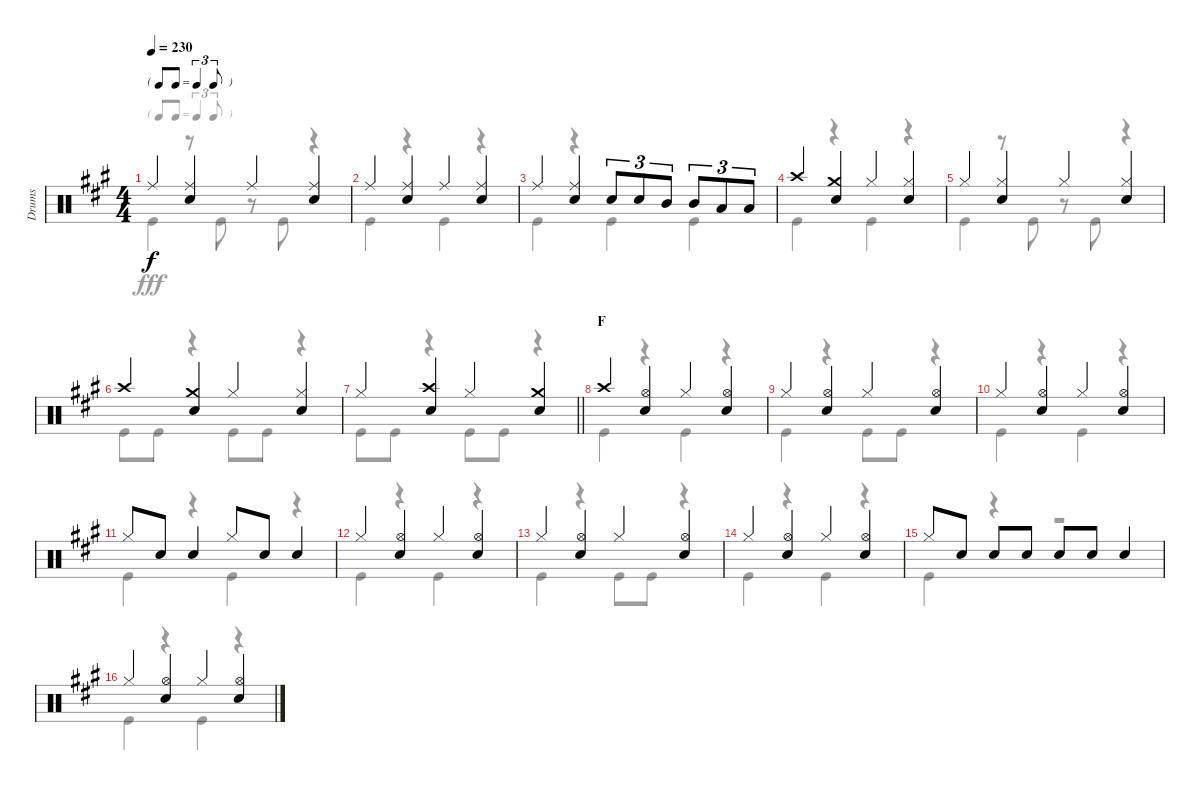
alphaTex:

\track ("Drums" "Drums") {instrument percussion}
\staff {score}
\articulation defaults
\voice
\ts (4 4)
\tf triplet8th
\tempo 230
\clef neutral
\ks a "Ride (middle)".4{dy f}
("Ride (middle)" "Snare (hit) 2").4 "Ride (middle)".4 ("Ride (middle)" "Snare (hit) 2").4 |
"Ride (middle)".4 ("Ride (middle)" "Snare (hit) 2").4 "Ride (middle)".4 ("Ride (middle)" "Snare (hit) 2").4 |
"Ride (middle)".4 ("Ride (middle)" "Snare (hit) 2").4 "Snare (hit) 2".8{tu (3 2)} "Snare (hit) 2".8{tu (3 2)} "Mid Tom (hit)".8{tu (3 2)} "Mid Tom (hit)".8{tu (3 2)} "Low Tom (hit)".8{tu (3 2)} "Low Tom (hit)".8{tu (3 2)} |
"Crash high (hit)".4 ("Crash medium (hit)" "Snare (hit) 2").4 "Hi-Hat (closed)".4 ("Hi-Hat (closed)" "Snare (hit) 2").4 |
"Hi-Hat (closed)".4 ("Hi-Hat (closed)" "Snare (hit) 2").4 "Hi-Hat (closed)".4 ("Hi-Hat (closed)" "Snare (hit) 2").4 |
"Crash high (hit)".4 ("Crash medium (hit)" "Snare (hit) 2").4 "Hi-Hat (closed)".4 ("Hi-Hat (closed)" "Snare (hit) 2").4 |
\barLineRight lightlight "Hi-Hat (closed)".4
("Crash high (hit)" "Snare (hit) 2").4 "Hi-Hat (closed)".4 ("Crash medium (hit)" "Snare (hit) 2").4 |
\section ("" "F")
"Crash high (hit)".4 ("Hi-Hat (open)" "Snare (hit) 2").4 "Hi-Hat (closed)".4 ("Hi-Hat (open)" "Snare (hit) 2").4 |
"Hi-Hat (closed)".4 ("Hi-Hat (open)" "Snare (hit) 2").4 "Hi-Hat (closed)".4 ("Hi-Hat (open)" "Snare (hit) 2").4 |
"Hi-Hat (closed)".4 ("Hi-Hat (open)" "Snare (hit) 2").4 "Hi-Hat (closed)".4 ("Hi-Hat (open)" "Snare (hit) 2").4 |
"Hi-Hat (closed)".8 "Snare (hit) 2".8 "Snare (hit) 2".4 "Hi-Hat (closed)".8 "Snare (hit) 2".8 "Snare (hit) 2".4 |
"Hi-Hat (closed)".4 ("Hi-Hat (open)" "Snare (hit) 2").4 "Hi-Hat (closed)".4 ("Hi-Hat (open)" "Snare (hit) 2").4 |
"Hi-Hat (closed)".4 ("Hi-Hat (open)" "Snare (hit) 2").4 "Hi-Hat (closed)".4 ("Hi-Hat (open)" "Snare (hit) 2").4 |
"Hi-Hat (closed)".4 ("Hi-Hat (open)" "Snare (hit) 2").4 "Hi-Hat (closed)".4 ("Hi-Hat (open)" "Snare (hit) 2").4 |
"Hi-Hat (closed)".8 "Snare (hit) 2".8 "Snare (hit) 2".8 "Snare (hit) 2".8 "Snare (hit) 2".8 "Snare (hit) 2".8 "Snare (hit) 2".4 |
"Hi-Hat (closed)".4 ("Hi-Hat (open)" "Snare (hit) 2").4 "Hi-Hat (closed)".4 ("Hi-Hat (open)" "Snare (hit) 2").4
\voice
\clef neutral
\ottava regular
\simile none
\ks a "Kick (hit)".4{dy fff}
r.8 "Kick (hit)".8 r.8 "Kick (hit)".8 r.4 |
"Kick (hit)".4 r.4 "Kick (hit)".4 r.4 |
"Kick (hit)".4 r.4 "Kick (hit)".4 "Kick (hit)".4 |
"Kick (hit)".4 r.4 "Kick (hit)".4 r.4 |
"Kick (hit)".4 r.8 "Kick (hit)".8 r.8 "Kick (hit)".8 r.4 |
"Kick (hit)".8 "Kick (hit)".8 r.4 "Kick (hit)".8 "Kick (hit)".8 r.4 |
\barLineRight lightlight "Kick (hit)".8 "Kick (hit)".8
r.4 "Kick (hit)".8 "Kick (hit)".8 r.4 |
"Kick (hit)".4 r.4 "Kick (hit)".4 r.4 |
"Kick (hit)".4 r.4 "Kick (hit)".8 "Kick (hit)".8 r.4 |
"Kick (hit)".4 r.4 "Kick (hit)".4 r.4 |
"Kick (hit)".4 r.4 "Kick (hit)".4 r.4 |
"Kick (hit)".4 r.4 "Kick (hit)".4 r.4 |
"Kick (hit)".4 r.4 "Kick (hit)".8 "Kick (hit)".8 r.4 |
"Kick (hit)".4 r.4 "Kick (hit)".4 r.4 |
"Kick (hit)".4 r.4 r.2 |
"Kick (hit)".4 r.4 "Kick (hit)".4 r.4
